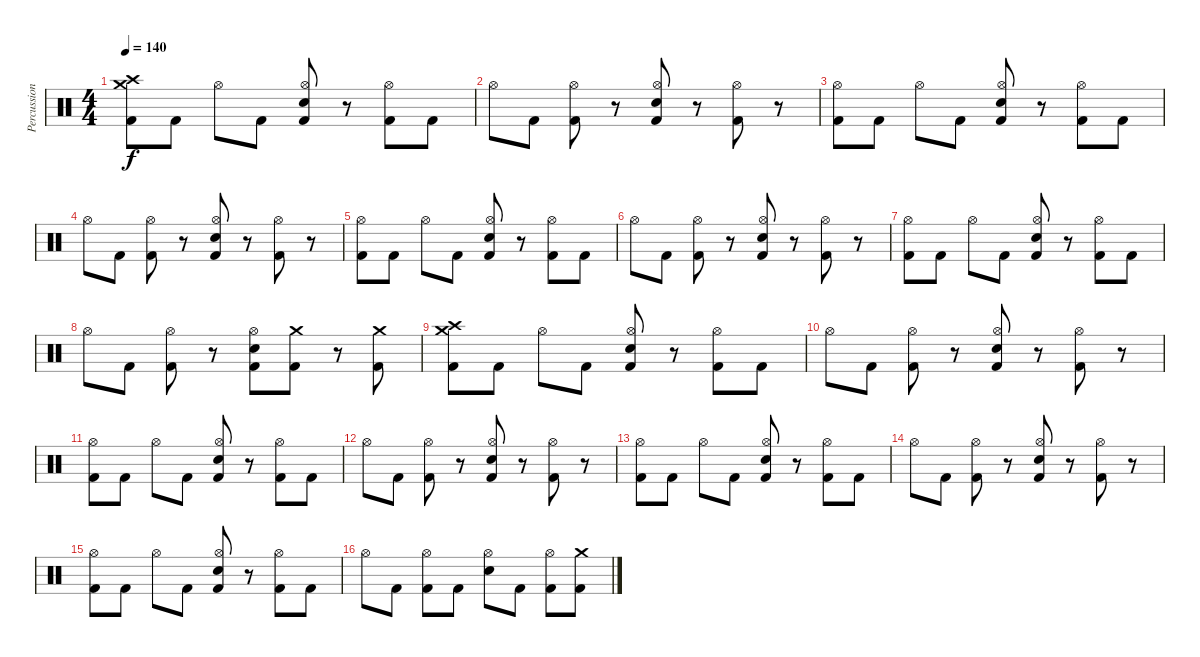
\track ("Percussion" "Percussion") {instrument percussion}
\staff {score}
\articulation defaults
\ts (4 4)
\tempo 140
\clef neutral
\ks c
("Crash medium (hit)" "Kick (hit) 2" "Crash high (hit)").8{dy f} "Kick (hit) 2".8 "Hi-Hat (open)".8 "Kick (hit) 2".8 ("Hi-Hat (open)" "Electric Snare (hit)" "Kick (hit) 2").8 r.8 ("Hi-Hat (open)" "Kick (hit) 2").8 "Kick (hit) 2".8 |
"Hi-Hat (open)".8 "Kick (hit) 2".8 ("Hi-Hat (open)" "Kick (hit) 2").8 r.8 ("Electric Snare (hit)" "Hi-Hat (open)" "Kick (hit) 2").8 r.8 ("Kick (hit) 2" "Hi-Hat (open)").8 r.8 |
("Kick (hit) 2" "Hi-Hat (open)").8 "Kick (hit) 2".8 "Hi-Hat (open)".8 "Kick (hit) 2".8 ("Hi-Hat (open)" "Electric Snare (hit)" "Kick (hit) 2").8 r.8 ("Hi-Hat (open)" "Kick (hit) 2").8 "Kick (hit) 2".8 |
"Hi-Hat (open)".8 "Kick (hit) 2".8 ("Hi-Hat (open)" "Kick (hit) 2").8 r.8 ("Electric Snare (hit)" "Hi-Hat (open)" "Kick (hit) 2").8 r.8 ("Kick (hit) 2" "Hi-Hat (open)").8 r.8 |
("Kick (hit) 2" "Hi-Hat (open)").8 "Kick (hit) 2".8 "Hi-Hat (open)".8 "Kick (hit) 2".8 ("Hi-Hat (open)" "Electric Snare (hit)" "Kick (hit) 2").8 r.8 ("Hi-Hat (open)" "Kick (hit) 2").8 "Kick (hit) 2".8 |
"Hi-Hat (open)".8 "Kick (hit) 2".8 ("Hi-Hat (open)" "Kick (hit) 2").8 r.8 ("Electric Snare (hit)" "Hi-Hat (open)" "Kick (hit) 2").8 r.8 ("Kick (hit) 2" "Hi-Hat (open)").8 r.8 |
("Kick (hit) 2" "Hi-Hat (open)").8 "Kick (hit) 2".8 "Hi-Hat (open)".8 "Kick (hit) 2".8 ("Hi-Hat (open)" "Electric Snare (hit)" "Kick (hit) 2").8 r.8 ("Hi-Hat (open)" "Kick (hit) 2").8 "Kick (hit) 2".8 |
"Hi-Hat (open)".8 "Kick (hit) 2".8 ("Hi-Hat (open)" "Kick (hit) 2").8 r.8 ("Electric Snare (hit)" "Hi-Hat (open)" "Kick (hit) 2").8 ("Crash medium (hit)" "Kick (hit) 2").8 r.8 ("Crash medium (hit)" "Kick (hit) 2").8 |
("Crash medium (hit)" "Kick (hit) 2" "Crash high (hit)").8 "Kick (hit) 2".8 "Hi-Hat (open)".8 "Kick (hit) 2".8 ("Hi-Hat (open)" "Electric Snare (hit)" "Kick (hit) 2").8 r.8 ("Hi-Hat (open)" "Kick (hit) 2").8 "Kick (hit) 2".8 |
"Hi-Hat (open)".8 "Kick (hit) 2".8 ("Hi-Hat (open)" "Kick (hit) 2").8 r.8 ("Electric Snare (hit)" "Hi-Hat (open)" "Kick (hit) 2").8 r.8 ("Kick (hit) 2" "Hi-Hat (open)").8 r.8 |
("Kick (hit) 2" "Hi-Hat (open)").8 "Kick (hit) 2".8 "Hi-Hat (open)".8 "Kick (hit) 2".8 ("Hi-Hat (open)" "Electric Snare (hit)" "Kick (hit) 2").8 r.8 ("Hi-Hat (open)" "Kick (hit) 2").8 "Kick (hit) 2".8 |
"Hi-Hat (open)".8 "Kick (hit) 2".8 ("Hi-Hat (open)" "Kick (hit) 2").8 r.8 ("Electric Snare (hit)" "Hi-Hat (open)" "Kick (hit) 2").8 r.8 ("Kick (hit) 2" "Hi-Hat (open)").8 r.8 |
("Kick (hit) 2" "Hi-Hat (open)").8 "Kick (hit) 2".8 "Hi-Hat (open)".8 "Kick (hit) 2".8 ("Hi-Hat (open)" "Electric Snare (hit)" "Kick (hit) 2").8 r.8 ("Hi-Hat (open)" "Kick (hit) 2").8 "Kick (hit) 2".8 |
"Hi-Hat (open)".8 "Kick (hit) 2".8 ("Hi-Hat (open)" "Kick (hit) 2").8 r.8 ("Electric Snare (hit)" "Hi-Hat (open)" "Kick (hit) 2").8 r.8 ("Kick (hit) 2" "Hi-Hat (open)").8 r.8 |
("Kick (hit) 2" "Hi-Hat (open)").8 "Kick (hit) 2".8 "Hi-Hat (open)".8 "Kick (hit) 2".8 ("Hi-Hat (open)" "Electric Snare (hit)" "Kick (hit) 2").8 r.8 ("Hi-Hat (open)" "Kick (hit) 2").8 "Kick (hit) 2".8 |
"Hi-Hat (open)".8 "Kick (hit) 2".8 ("Hi-Hat (open)" "Kick (hit) 2").8 "Kick (hit) 2".8 ("Electric Snare (hit)" "Hi-Hat (open)").8 "Kick (hit) 2".8 ("Hi-Hat (open)" "Kick (hit) 2").8 ("Crash medium (hit)" "Kick (hit) 2").8
